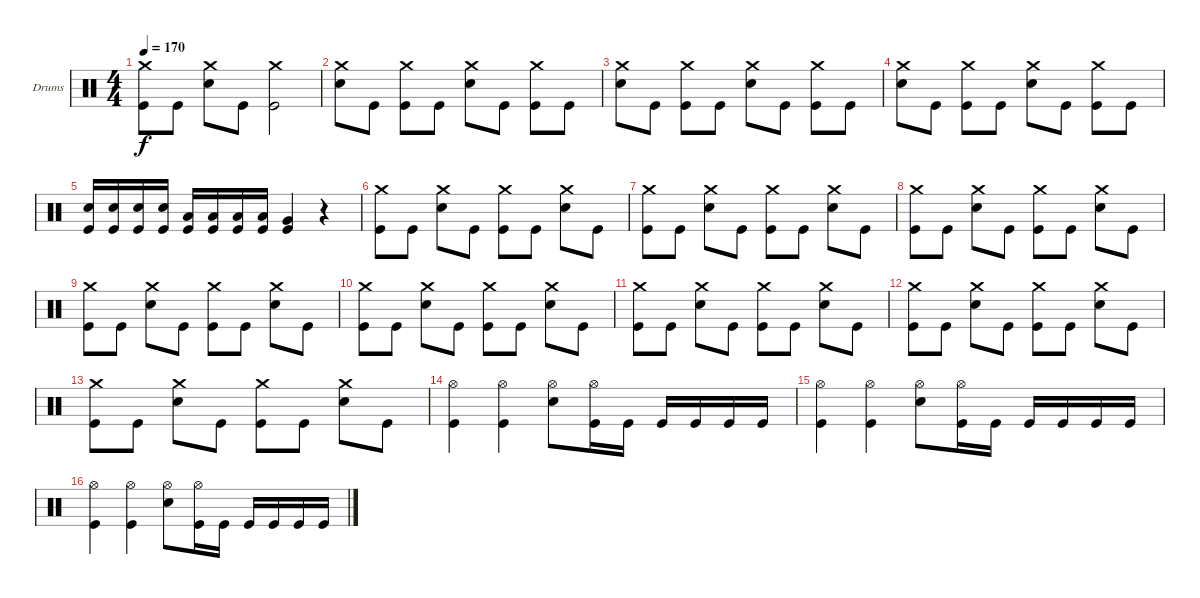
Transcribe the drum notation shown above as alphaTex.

\defaultSystemsLayout 4
\bracketExtendMode groupsimilarinstruments
\firstSystemTrackNameOrientation horizontal
\otherSystemsTrackNameOrientation horizontal
\track ("Drumkit" "Drums") {instrument percussion}
\staff {score}
\articulation defaults
\ts (4 4)
\tempo 170
\clef neutral
\scale
0.333333
\ks c
("Crash medium (hit)" "Kick (hit)").8{dy f} "Kick (hit)".8 ("Crash medium (hit)" "Snare (hit) 2").8 "Kick (hit)".8 ("Crash medium (hit)" "Kick (hit)").2 |
\scale
0.333333 ("Crash medium (hit)" "Snare (hit) 2").8 "Kick (hit)".8 ("Crash medium (hit)" "Kick (hit)").8 "Kick (hit)".8 ("Crash medium (hit)" "Snare (hit) 2").8 "Kick (hit)".8 ("Crash medium (hit)" "Kick (hit)").8 "Kick (hit)".8 |
\scale
0.333333 ("Crash medium (hit)" "Snare (hit) 2").8 "Kick (hit)".8 ("Crash medium (hit)" "Kick (hit)").8 "Kick (hit)".8 ("Crash medium (hit)" "Snare (hit) 2").8 "Kick (hit)".8 ("Crash medium (hit)" "Kick (hit)").8 "Kick (hit)".8 |
\scale
0.333333 ("Crash medium (hit)" "Snare (hit) 2").8 "Kick (hit)".8 ("Crash medium (hit)" "Kick (hit)").8 "Kick (hit)".8 ("Crash medium (hit)" "Snare (hit) 2").8 "Kick (hit)".8 ("Crash medium (hit)" "Kick (hit)").8 "Kick (hit)".8 |
\scale
0.333333 ("Snare (hit) 2" "Kick (hit)").16 ("Snare (hit) 2" "Kick (hit)").16 ("Snare (hit) 2" "Kick (hit)").16 ("Snare (hit) 2" "Kick (hit)").16 ("Low Tom (hit)" "Kick (hit)").16 ("Low Tom (hit)" "Kick (hit)").16 ("Low Tom (hit)" "Kick (hit)").16 ("Low Tom (hit)" "Kick (hit)").16 ("Very Low Tom (hit)" "Kick (hit)").4 r.4 |
\scale
0.333333 ("Crash medium (hit)" "Kick (hit)").8 "Kick (hit)".8 ("Crash medium (hit)" "Snare (hit) 2").8 "Kick (hit)".8 ("Crash medium (hit)" "Kick (hit)").8 "Kick (hit)".8 ("Crash medium (hit)" "Snare (hit) 2").8 "Kick (hit)".8 |
\scale
0.333333 ("Crash medium (hit)" "Kick (hit)").8 "Kick (hit)".8 ("Crash medium (hit)" "Snare (hit) 2").8 "Kick (hit)".8 ("Crash medium (hit)" "Kick (hit)").8 "Kick (hit)".8 ("Crash medium (hit)" "Snare (hit) 2").8 "Kick (hit)".8 |
\scale
0.333333 ("Crash medium (hit)" "Kick (hit)").8 "Kick (hit)".8 ("Crash medium (hit)" "Snare (hit) 2").8 "Kick (hit)".8 ("Crash medium (hit)" "Kick (hit)").8 "Kick (hit)".8 ("Crash medium (hit)" "Snare (hit) 2").8 "Kick (hit)".8 |
\scale
0.333333 ("Crash medium (hit)" "Kick (hit)").8 "Kick (hit)".8 ("Crash medium (hit)" "Snare (hit) 2").8 "Kick (hit)".8 ("Crash medium (hit)" "Kick (hit)").8 "Kick (hit)".8 ("Crash medium (hit)" "Snare (hit) 2").8 "Kick (hit)".8 |
\scale
0.333333 ("Crash medium (hit)" "Kick (hit)").8 "Kick (hit)".8 ("Crash medium (hit)" "Snare (hit) 2").8 "Kick (hit)".8 ("Crash medium (hit)" "Kick (hit)").8 "Kick (hit)".8 ("Crash medium (hit)" "Snare (hit) 2").8 "Kick (hit)".8 |
\scale
0.333333 ("Crash medium (hit)" "Kick (hit)").8 "Kick (hit)".8 ("Crash medium (hit)" "Snare (hit) 2").8 "Kick (hit)".8 ("Crash medium (hit)" "Kick (hit)").8 "Kick (hit)".8 ("Crash medium (hit)" "Snare (hit) 2").8 "Kick (hit)".8 |
\scale
0.333333 ("Crash medium (hit)" "Kick (hit)").8 "Kick (hit)".8 ("Crash medium (hit)" "Snare (hit) 2").8 "Kick (hit)".8 ("Crash medium (hit)" "Kick (hit)").8 "Kick (hit)".8 ("Crash medium (hit)" "Snare (hit) 2").8 "Kick (hit)".8 |
\scale
0.333333 ("Crash medium (hit)" "Kick (hit)").8 "Kick (hit)".8 ("Crash medium (hit)" "Snare (hit) 2").8 "Kick (hit)".8 ("Crash medium (hit)" "Kick (hit)").8 "Kick (hit)".8 ("Crash medium (hit)" "Snare (hit) 2").8 "Kick (hit)".8 |
\scale
0.333333 ("Hi-Hat (open)" "Kick (hit)").4 ("Hi-Hat (open)" "Kick (hit)").4 ("Hi-Hat (open)" "Snare (hit) 2").8 ("Hi-Hat (open)" "Kick (hit)").16 "Kick (hit)".16 "Kick (hit)".16 "Kick (hit)".16 "Kick (hit)".16 "Kick (hit)".16 |
\scale
0.333333 ("Hi-Hat (open)" "Kick (hit)").4 ("Hi-Hat (open)" "Kick (hit)").4 ("Hi-Hat (open)" "Snare (hit) 2").8 ("Hi-Hat (open)" "Kick (hit)").16 "Kick (hit)".16 "Kick (hit)".16 "Kick (hit)".16 "Kick (hit)".16 "Kick (hit)".16 |
\scale
0.333333 ("Hi-Hat (open)" "Kick (hit)").4 ("Hi-Hat (open)" "Kick (hit)").4 ("Hi-Hat (open)" "Snare (hit) 2").8 ("Hi-Hat (open)" "Kick (hit)").16 "Kick (hit)".16 "Kick (hit)".16 "Kick (hit)".16 "Kick (hit)".16 "Kick (hit)".16
